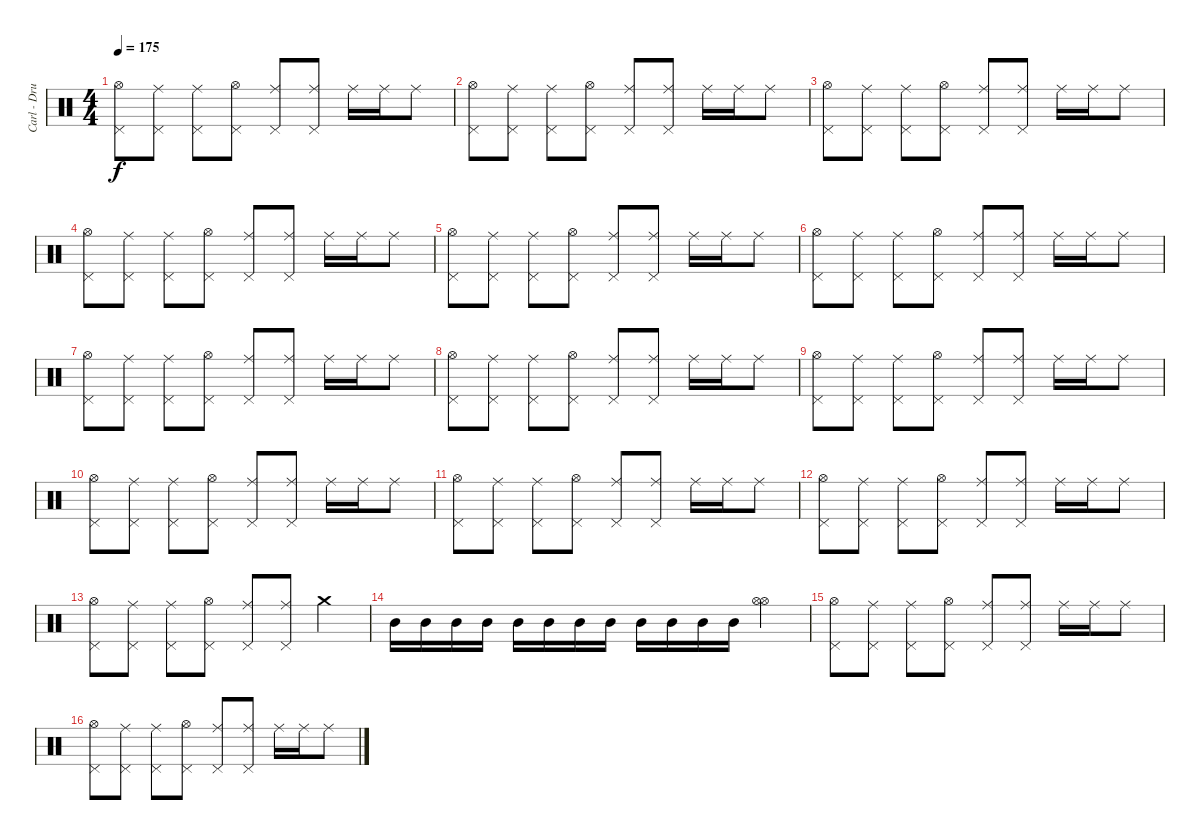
\track ("Carl - Drums II" "Carl - Dru") {instrument percussion}
\staff {score}
\articulation defaults
\ts (4 4)
\tempo 175
\clef neutral
\ks c
("Pedal Hi-Hat (hit)" "Hi-Hat (open)").8{dy f} ("Pedal Hi-Hat (hit)" "Ride (middle)").8 ("Pedal Hi-Hat (hit)" "Ride (middle)").8 ("Pedal Hi-Hat (hit)" "Hi-Hat (open)").8 ("Pedal Hi-Hat (hit)" "Ride (middle)").8 ("Pedal Hi-Hat (hit)" "Ride (middle)").8 "Ride (middle)".16 "Ride (middle)".16 "Ride (middle)".8 |
("Pedal Hi-Hat (hit)" "Hi-Hat (open)").8 ("Pedal Hi-Hat (hit)" "Ride (middle)").8 ("Pedal Hi-Hat (hit)" "Ride (middle)").8 ("Pedal Hi-Hat (hit)" "Hi-Hat (open)").8 ("Pedal Hi-Hat (hit)" "Ride (middle)").8 ("Pedal Hi-Hat (hit)" "Ride (middle)").8 "Ride (middle)".16 "Ride (middle)".16 "Ride (middle)".8 |
("Pedal Hi-Hat (hit)" "Hi-Hat (open)").8 ("Pedal Hi-Hat (hit)" "Ride (middle)").8 ("Pedal Hi-Hat (hit)" "Ride (middle)").8 ("Pedal Hi-Hat (hit)" "Hi-Hat (open)").8 ("Pedal Hi-Hat (hit)" "Ride (middle)").8 ("Pedal Hi-Hat (hit)" "Ride (middle)").8 "Ride (middle)".16 "Ride (middle)".16 "Ride (middle)".8 |
("Pedal Hi-Hat (hit)" "Hi-Hat (open)").8 ("Pedal Hi-Hat (hit)" "Ride (middle)").8 ("Pedal Hi-Hat (hit)" "Ride (middle)").8 ("Pedal Hi-Hat (hit)" "Hi-Hat (open)").8 ("Pedal Hi-Hat (hit)" "Ride (middle)").8 ("Pedal Hi-Hat (hit)" "Ride (middle)").8 "Ride (middle)".16 "Ride (middle)".16 "Ride (middle)".8 |
("Pedal Hi-Hat (hit)" "Hi-Hat (open)").8 ("Pedal Hi-Hat (hit)" "Ride (middle)").8 ("Pedal Hi-Hat (hit)" "Ride (middle)").8 ("Pedal Hi-Hat (hit)" "Hi-Hat (open)").8 ("Pedal Hi-Hat (hit)" "Ride (middle)").8 ("Pedal Hi-Hat (hit)" "Ride (middle)").8 "Ride (middle)".16 "Ride (middle)".16 "Ride (middle)".8 |
("Pedal Hi-Hat (hit)" "Hi-Hat (open)").8 ("Pedal Hi-Hat (hit)" "Ride (middle)").8 ("Pedal Hi-Hat (hit)" "Ride (middle)").8 ("Pedal Hi-Hat (hit)" "Hi-Hat (open)").8 ("Pedal Hi-Hat (hit)" "Ride (middle)").8 ("Pedal Hi-Hat (hit)" "Ride (middle)").8 "Ride (middle)".16 "Ride (middle)".16 "Ride (middle)".8 |
("Pedal Hi-Hat (hit)" "Hi-Hat (open)").8 ("Pedal Hi-Hat (hit)" "Ride (middle)").8 ("Pedal Hi-Hat (hit)" "Ride (middle)").8 ("Pedal Hi-Hat (hit)" "Hi-Hat (open)").8 ("Pedal Hi-Hat (hit)" "Ride (middle)").8 ("Pedal Hi-Hat (hit)" "Ride (middle)").8 "Ride (middle)".16 "Ride (middle)".16 "Ride (middle)".8 |
("Pedal Hi-Hat (hit)" "Hi-Hat (open)").8 ("Pedal Hi-Hat (hit)" "Ride (middle)").8 ("Pedal Hi-Hat (hit)" "Ride (middle)").8 ("Pedal Hi-Hat (hit)" "Hi-Hat (open)").8 ("Pedal Hi-Hat (hit)" "Ride (middle)").8 ("Pedal Hi-Hat (hit)" "Ride (middle)").8 "Ride (middle)".16 "Ride (middle)".16 "Ride (middle)".8 |
("Pedal Hi-Hat (hit)" "Hi-Hat (open)").8 ("Pedal Hi-Hat (hit)" "Ride (middle)").8 ("Pedal Hi-Hat (hit)" "Ride (middle)").8 ("Pedal Hi-Hat (hit)" "Hi-Hat (open)").8 ("Pedal Hi-Hat (hit)" "Ride (middle)").8 ("Pedal Hi-Hat (hit)" "Ride (middle)").8 "Ride (middle)".16 "Ride (middle)".16 "Ride (middle)".8 |
("Pedal Hi-Hat (hit)" "Hi-Hat (open)").8 ("Pedal Hi-Hat (hit)" "Ride (middle)").8 ("Pedal Hi-Hat (hit)" "Ride (middle)").8 ("Pedal Hi-Hat (hit)" "Hi-Hat (open)").8 ("Pedal Hi-Hat (hit)" "Ride (middle)").8 ("Pedal Hi-Hat (hit)" "Ride (middle)").8 "Ride (middle)".16 "Ride (middle)".16 "Ride (middle)".8 |
("Pedal Hi-Hat (hit)" "Hi-Hat (open)").8 ("Pedal Hi-Hat (hit)" "Ride (middle)").8 ("Pedal Hi-Hat (hit)" "Ride (middle)").8 ("Pedal Hi-Hat (hit)" "Hi-Hat (open)").8 ("Pedal Hi-Hat (hit)" "Ride (middle)").8 ("Pedal Hi-Hat (hit)" "Ride (middle)").8 "Ride (middle)".16 "Ride (middle)".16 "Ride (middle)".8 |
("Pedal Hi-Hat (hit)" "Hi-Hat (open)").8 ("Pedal Hi-Hat (hit)" "Ride (middle)").8 ("Pedal Hi-Hat (hit)" "Ride (middle)").8 ("Pedal Hi-Hat (hit)" "Hi-Hat (open)").8 ("Pedal Hi-Hat (hit)" "Ride (middle)").8 ("Pedal Hi-Hat (hit)" "Ride (middle)").8 "Ride (middle)".16 "Ride (middle)".16 "Ride (middle)".8 |
("Pedal Hi-Hat (hit)" "Hi-Hat (open)").8 ("Pedal Hi-Hat (hit)" "Ride (middle)").8 ("Pedal Hi-Hat (hit)" "Ride (middle)").8 ("Pedal Hi-Hat (hit)" "Hi-Hat (open)").8 ("Pedal Hi-Hat (hit)" "Ride (middle)").8 ("Pedal Hi-Hat (hit)" "Ride (middle)").8 "Crash medium (hit)".4 |
"Mid Tom (hit)".16 "Mid Tom (hit)".16 "Mid Tom (hit)".16 "Mid Tom (hit)".16 "Mid Tom (hit)".16 "Mid Tom (hit)".16 "Mid Tom (hit)".16 "Mid Tom (hit)".16 "Mid Tom (hit)".16 "Mid Tom (hit)".16 "Mid Tom (hit)".16 "Mid Tom (hit)".16 ("Hi-Hat (open)" "Hi-Hat (open)").4 |
("Pedal Hi-Hat (hit)" "Hi-Hat (open)").8 ("Pedal Hi-Hat (hit)" "Ride (middle)").8 ("Pedal Hi-Hat (hit)" "Ride (middle)").8 ("Pedal Hi-Hat (hit)" "Hi-Hat (open)").8 ("Pedal Hi-Hat (hit)" "Ride (middle)").8 ("Pedal Hi-Hat (hit)" "Ride (middle)").8 "Ride (middle)".16 "Ride (middle)".16 "Ride (middle)".8 |
("Pedal Hi-Hat (hit)" "Hi-Hat (open)").8 ("Pedal Hi-Hat (hit)" "Ride (middle)").8 ("Pedal Hi-Hat (hit)" "Ride (middle)").8 ("Pedal Hi-Hat (hit)" "Hi-Hat (open)").8 ("Pedal Hi-Hat (hit)" "Ride (middle)").8 ("Pedal Hi-Hat (hit)" "Ride (middle)").8 "Ride (middle)".16 "Ride (middle)".16 "Ride (middle)".8
